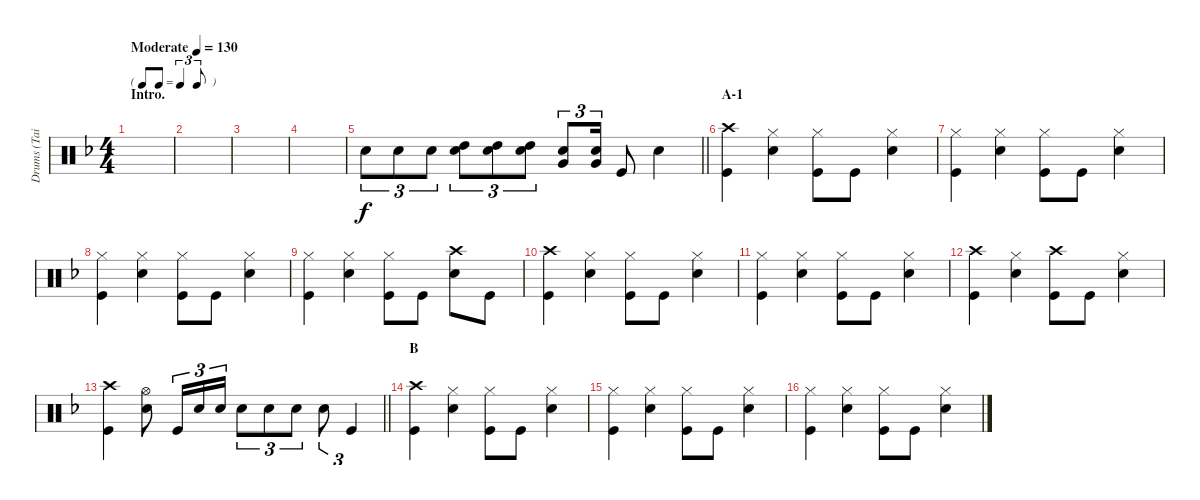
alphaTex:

\track ("Drums (Tainaka Ritsu)" "Drums (Tai") {instrument percussion}
\staff {score}
\articulation defaults
\ts (4 4)
\tf triplet8th
\section ("" "Intro.")
\tempo (130 "Moderate")
\clef neutral
\ks f
|
|
|
|
\barLineRight lightlight "Snare (hit) 2".8{tu (3 2)} "Snare (hit) 2".8{tu (3 2)} "Snare (hit) 2".8{tu (3 2)}
("Snare (hit) 2" "High Tom (hit)").8{tu (3 2)} ("Snare (hit) 2" "High Tom (hit)").8{tu (3 2)} ("Snare (hit) 2" "High Tom (hit)").8{tu (3 2)} ("Snare (hit) 2" "Very Low Tom (hit)").8{tu (3 2)} ("Snare (hit) 2" "Very Low Tom (hit)").16{tu (3 2)} "Kick (hit)".8 "Snare (hit) 2".4 |
\section ("" "A-1")
("Crash high (hit)" "Kick (hit)").4 ("Hi-Hat (closed)" "Snare (hit) 2").4 ("Hi-Hat (closed)" "Kick (hit)").8 "Kick (hit)".8 ("Hi-Hat (closed)" "Snare (hit) 2").4 |
("Hi-Hat (closed)" "Kick (hit)").4 ("Hi-Hat (closed)" "Snare (hit) 2").4 ("Hi-Hat (closed)" "Kick (hit)").8 "Kick (hit)".8 ("Hi-Hat (closed)" "Snare (hit) 2").4 |
("Hi-Hat (closed)" "Kick (hit)").4 ("Hi-Hat (closed)" "Snare (hit) 2").4 ("Hi-Hat (closed)" "Kick (hit)").8 "Kick (hit)".8 ("Hi-Hat (closed)" "Snare (hit) 2").4 |
("Hi-Hat (closed)" "Kick (hit)").4 ("Hi-Hat (closed)" "Snare (hit) 2").4 ("Hi-Hat (closed)" "Kick (hit)").8 "Kick (hit)".8 ("Crash high (hit)" "Snare (hit) 2").8 "Kick (hit)".8 |
("Crash high (hit)" "Kick (hit)").4 ("Hi-Hat (closed)" "Snare (hit) 2").4 ("Hi-Hat (closed)" "Kick (hit)").8 "Kick (hit)".8 ("Hi-Hat (closed)" "Snare (hit) 2").4 |
("Hi-Hat (closed)" "Kick (hit)").4 ("Hi-Hat (closed)" "Snare (hit) 2").4 ("Hi-Hat (closed)" "Kick (hit)").8 "Kick (hit)".8 ("Hi-Hat (closed)" "Snare (hit) 2").4 |
("Crash high (hit)" "Kick (hit)").4 ("Hi-Hat (closed)" "Snare (hit) 2").4 ("Crash high (hit)" "Kick (hit)").8 "Kick (hit)".8 ("Hi-Hat (closed)" "Snare (hit) 2").4 |
\barLineRight lightlight
("Crash high (hit)" "Kick (hit)").4 ("Hi-Hat (open)" "Snare (hit) 2").8 "Kick (hit)".16{tu (3 2)} "Snare (hit) 2".16{tu (3 2)} "Snare (hit) 2".16{tu (3 2)} "Snare (hit) 2".8{tu (3 2)} "Snare (hit) 2".8{tu (3 2)} "Snare (hit) 2".8{tu (3 2)} "Snare (hit) 2".8{tu (3 2)} "Kick (hit)".4{tu (3 2)} |
\section ("" "B")
("Crash high (hit)" "Kick (hit)").4 ("Hi-Hat (closed)" "Snare (hit) 2").4 ("Hi-Hat (closed)" "Kick (hit)").8 "Kick (hit)".8 ("Hi-Hat (closed)" "Snare (hit) 2").4 |
("Hi-Hat (closed)" "Kick (hit)").4 ("Hi-Hat (closed)" "Snare (hit) 2").4 ("Hi-Hat (closed)" "Kick (hit)").8 "Kick (hit)".8 ("Hi-Hat (closed)" "Snare (hit) 2").4 |
("Hi-Hat (closed)" "Kick (hit)").4 ("Hi-Hat (closed)" "Snare (hit) 2").4 ("Hi-Hat (closed)" "Kick (hit)").8 "Kick (hit)".8 ("Hi-Hat (closed)" "Snare (hit) 2").4
